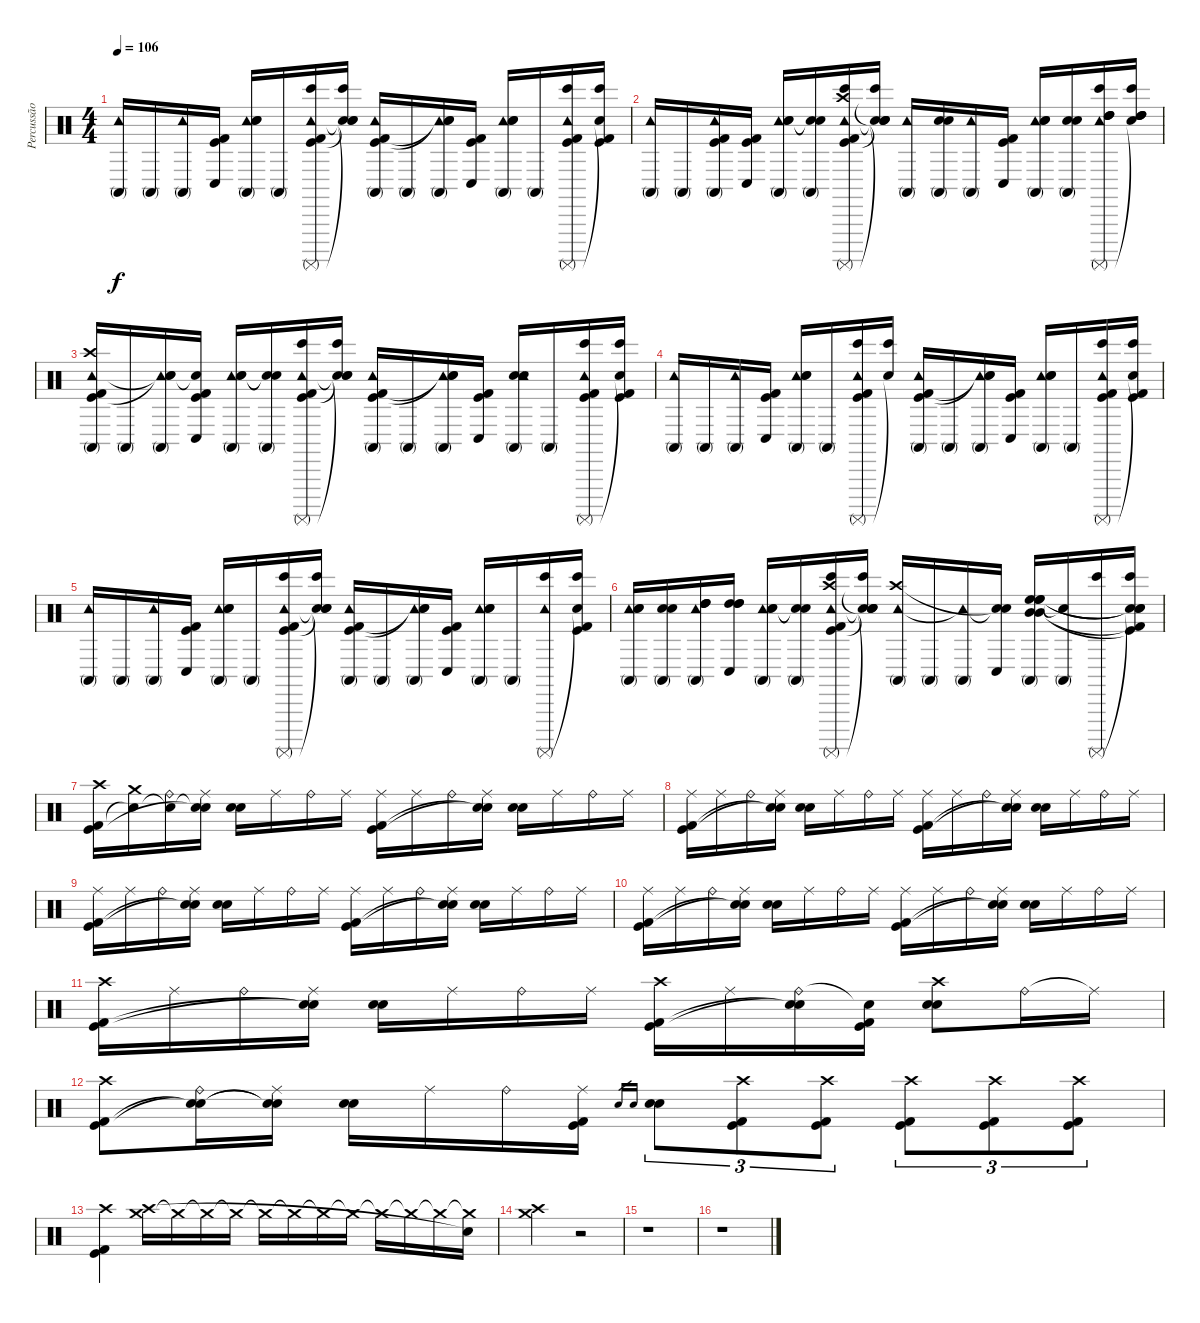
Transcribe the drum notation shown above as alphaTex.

\track ("Percussão" "Percussão") {instrument percussion}
\staff {score}
\articulation defaults
\ts (4 4)
\tempo 106
\clef neutral
\ks c
("Conga high (mute)" "Tambourine (hit)").16{dy f} "Conga high (mute)".16 ("Conga high (mute)" "Tambourine (hit)").16 ("Conga low (hit)" "Kick (hit)" "Kick (hit) 2").16 ("Conga high (mute)" "Tambourine (hit)" "Electric Snare (hit)" "Snare (hit) 2").16 "Conga high (mute)".16 ("Bongo High (hit)" "Surdo (mute)" "Tambourine (hit)" "Kick (hit)" "Kick (hit) 2").16 ("Bongo High (hit)" "Snare (hit)"{t} "Snare (hit)"{t} "Snare (hit)"{t}).16 ("Conga high (mute)" "Tambourine (hit)" "Kick (hit)" "Kick (hit) 2").16 "Conga high (mute)".16 ("Conga high (mute)" "Tambourine (hit)" "Snare (hit)"{t} "Snare (hit)"{t}).16 ("Conga low (hit)" "Kick (hit)" "Kick (hit) 2").16 ("Conga high (mute)" "Tambourine (hit)" "Electric Snare (hit)" "Snare (hit) 2").16 "Conga high (mute)".16 ("Bongo High (hit)" "Surdo (mute)" "Tambourine (hit)" "Kick (hit)" "Kick (hit) 2").16 ("Bongo High (hit)" "Snare (hit)"{t} "Kick (hit)" "Kick (hit) 2").16 |
("Conga high (mute)" "Tambourine (hit)").16 "Conga high (mute)".16 ("Conga high (mute)" "Tambourine (hit)" "Kick (hit)" "Kick (hit) 2").16 ("Conga low (hit)" "Kick (hit)" "Kick (hit) 2").16 ("Conga high (mute)" "Tambourine (hit)" "Electric Snare (hit)" "Snare (hit) 2").16 ("Conga high (mute)" "Snare (hit)"{t} "Snare (hit)"{t}).16 ("Bongo High (hit)" "Surdo (mute)" "Tambourine (hit)" "Crash high (hit)" "Kick (hit)" "Kick (hit) 2").16 ("Bongo High (hit)" "Snare (hit)"{t} "Snare (hit)"{t} "Snare (hit)"{t} "Snare (hit)"{t}).16 ("Conga high (mute)" "Tambourine (hit)").16 ("Conga high (mute)" "Electric Snare (hit)" "Snare (hit) 2").16 ("Conga high (mute)" "Tambourine (hit)").16 ("Conga low (hit)" "Kick (hit)" "Kick (hit) 2").16 ("Conga high (mute)" "Tambourine (hit)" "Electric Snare (hit)" "Snare (hit) 2").16 ("Conga high (mute)" "Electric Snare (hit)" "Snare (hit) 2").16 ("Bongo High (hit)" "Surdo (mute)" "Tambourine (hit)" "High Tom (hit)" "High Tom (hit)" "High Tom (hit)").16 ("Bongo High (hit)" "Snare (hit)"{t} "High Tom (hit)" "High Tom (hit)" "High Tom (hit)").16 |
("Conga high (mute)" "Crash high (hit)" "Tambourine (hit)" "Kick (hit)" "Kick (hit) 2").16 "Conga high (mute)".16 ("Conga high (mute)" "Tambourine (hit)" "Snare (hit)"{t} "Snare (hit)"{t}).16 ("Conga low (hit)" "Snare (hit)"{t} "Kick (hit) 2" "Kick (hit)").16 ("Conga high (mute)" "Tambourine (hit)" "Electric Snare (hit)" "Snare (hit) 2").16 ("Conga high (mute)" "Snare (hit)"{t} "Snare (hit)"{t}).16 ("Bongo High (hit)" "Surdo (mute)" "Tambourine (hit)" "Kick (hit)" "Kick (hit) 2").16 ("Bongo High (hit)" "Snare (hit)"{t} "Snare (hit)"{t} "Snare (hit)"{t}).16 ("Conga high (mute)" "Tambourine (hit)" "Kick (hit)" "Kick (hit) 2").16 "Conga high (mute)".16 ("Conga high (mute)" "Tambourine (hit)" "Snare (hit)"{t} "Snare (hit)"{t}).16 ("Conga low (hit)" "Kick (hit) 2" "Kick (hit)").16 ("Conga high (mute)" "Electric Snare (hit)" "Snare (hit) 2" "Tambourine (hit)").16 "Conga high (mute)".16 ("Bongo High (hit)" "Surdo (mute)" "Tambourine (hit)" "Kick (hit)" "Kick (hit) 2").16 ("Bongo High (hit)" "Snare (hit)"{t} "Kick (hit)" "Kick (hit) 2").16 |
("Conga high (mute)" "Tambourine (hit)").16 "Conga high (mute)".16 ("Conga high (mute)" "Tambourine (hit)").16 ("Conga low (hit)" "Kick (hit)" "Kick (hit) 2").16 ("Conga high (mute)" "Tambourine (hit)" "Electric Snare (hit)" "Snare (hit) 2").16 "Conga high (mute)".16 ("Bongo High (hit)" "Surdo (mute)" "Tambourine (hit)" "Kick (hit)" "Kick (hit) 2").16 ("Bongo High (hit)" "Snare (hit)"{t}).16 ("Conga high (mute)" "Tambourine (hit)" "Kick (hit) 2" "Kick (hit)").16 "Conga high (mute)".16 ("Conga high (mute)" "Tambourine (hit)" "Snare (hit)"{t} "Snare (hit)"{t}).16 ("Conga low (hit)" "Kick (hit)" "Kick (hit) 2").16 ("Conga high (mute)" "Tambourine (hit)" "Electric Snare (hit)" "Snare (hit) 2").16 "Conga high (mute)".16 ("Bongo High (hit)" "Surdo (mute)" "Tambourine (hit)" "Kick (hit)" "Kick (hit) 2").16 ("Bongo High (hit)" "Snare (hit)"{t} "Kick (hit)" "Kick (hit) 2").16 |
("Conga high (mute)" "Tambourine (hit)").16 "Conga high (mute)".16 ("Conga high (mute)" "Tambourine (hit)").16 ("Conga low (hit)" "Kick (hit)" "Kick (hit) 2").16 ("Conga high (mute)" "Tambourine (hit)" "Electric Snare (hit)" "Snare (hit) 2").16 "Conga high (mute)".16 ("Bongo High (hit)" "Surdo (mute)" "Tambourine (hit)" "Kick (hit)" "Kick (hit) 2").16 ("Bongo High (hit)" "Snare (hit)"{t} "Snare (hit)"{t} "Snare (hit)"{t}).16 ("Conga high (mute)" "Tambourine (hit)" "Kick (hit)" "Kick (hit) 2").16 "Conga high (mute)".16 ("Conga high (mute)" "Tambourine (hit)" "Snare (hit)"{t} "Snare (hit)"{t}).16 ("Conga low (hit)" "Kick (hit) 2" "Kick (hit)").16 ("Conga high (mute)" "Tambourine (hit)" "Electric Snare (hit)" "Snare (hit) 2").16 "Conga high (mute)".16 ("Bongo High (hit)" "Surdo (mute)" "Tambourine (hit)").16 ("Bongo High (hit)" "Snare (hit)"{t} "Kick (hit)" "Kick (hit) 2").16 |
("Conga high (mute)" "Tambourine (hit)" "Electric Snare (hit)" "Snare (hit) 2").16 ("Conga high (mute)" "Electric Snare (hit)" "Snare (hit) 2").16 ("Conga high (mute)" "Tambourine (hit)" "High Tom (hit)" "High Tom (hit)" "High Tom (hit)").16 ("Conga low (hit)" "High Tom (hit)" "High Tom (hit)" "High Tom (hit)").16 ("Conga high (mute)" "Tambourine (hit)" "Electric Snare (hit)" "Snare (hit) 2").16 ("Conga high (mute)" "Snare (hit)"{t} "Snare (hit)"{t}).16 ("Bongo High (hit)" "Surdo (mute)" "Tambourine (hit)" "Crash high (hit)" "Kick (hit)" "Kick (hit) 2").16 ("Bongo High (hit)" "Snare (hit)"{t} "Snare (hit)"{t} "Snare (hit)"{t} "Snare (hit)"{t}).16 ("Conga high (mute)" "Tambourine (hit)" "Crash high (hit)").16 "Conga high (mute)".16 ("Conga high (mute)" "Tambourine (hit)"{t}).16 ("Conga low (hit)" "Snare (hit)"{t} "Snare (hit)"{t}).16 ("Conga high (mute)" "High Floor Tom (hit)" "High Floor Tom (hit)" "High Floor Tom (hit)" "Mid Tom (hit)" "Mid Tom (hit)").16 ("Conga high (mute)" "Snare (hit)"{t}).16 ("Bongo High (hit)" "Surdo (mute)").16 ("Bongo High (hit)" "Snare (hit)"{t} "Snare (hit)"{t} "Snare (hit)"{t} "Kick (hit) 2"{t} "Kick (hit)"{t}).16 |
("Crash high (hit)" "Kick (hit) 2" "Kick (hit)").16 ("Crash medium (hit)" "Snare (hit)"{t}).16 ("Ride (bell)" "Snare (hit)"{t}).16 ("Ride (middle)" "Snare (hit)"{t} "Snare (hit)"{t}).16 ("Electric Snare (hit)" "Snare (hit) 2").16 "Ride (middle)".16 "Ride (bell)".16 "Ride (middle)".16 ("Ride (middle)" "Kick (hit)" "Kick (hit) 2").16 "Ride (middle)".16 "Ride (bell)".16 ("Ride (middle)" "Snare (hit)"{t} "Snare (hit)"{t}).16 ("Electric Snare (hit)" "Snare (hit) 2").16 "Ride (middle)".16 "Ride (bell)".16 "Ride (middle)".16 |
("Ride (middle)" "Kick (hit)" "Kick (hit) 2").16 "Ride (middle)".16 "Ride (bell)".16 ("Ride (middle)" "Snare (hit)"{t} "Snare (hit)"{t}).16 ("Electric Snare (hit)" "Snare (hit) 2").16 "Ride (middle)".16 "Ride (bell)".16 "Ride (middle)".16 ("Ride (middle)" "Kick (hit)" "Kick (hit) 2").16 "Ride (middle)".16 "Ride (bell)".16 ("Ride (middle)" "Snare (hit)"{t} "Snare (hit)"{t}).16 ("Electric Snare (hit)" "Snare (hit) 2").16 "Ride (middle)".16 "Ride (bell)".16 "Ride (middle)".16 |
("Ride (middle)" "Kick (hit)" "Kick (hit) 2").16 "Ride (middle)".16 "Ride (bell)".16 ("Ride (middle)" "Snare (hit)"{t} "Snare (hit)"{t}).16 ("Electric Snare (hit)" "Snare (hit) 2").16 "Ride (middle)".16 "Ride (bell)".16 "Ride (middle)".16 ("Ride (middle)" "Kick (hit)" "Kick (hit) 2").16 "Ride (middle)".16 "Ride (bell)".16 ("Ride (middle)" "Snare (hit)"{t} "Snare (hit)"{t}).16 ("Electric Snare (hit)" "Snare (hit) 2").16 "Ride (middle)".16 "Ride (bell)".16 "Ride (middle)".16 |
("Ride (middle)" "Kick (hit)" "Kick (hit) 2").16 "Ride (middle)".16 "Ride (bell)".16 ("Ride (middle)" "Snare (hit)"{t} "Snare (hit)"{t}).16 ("Electric Snare (hit)" "Snare (hit) 2").16 "Ride (middle)".16 "Ride (bell)".16 "Ride (middle)".16 ("Ride (middle)" "Kick (hit)" "Kick (hit) 2").16 "Ride (middle)".16 "Ride (bell)".16 ("Ride (middle)" "Snare (hit)"{t} "Snare (hit)"{t}).16 ("Electric Snare (hit)" "Snare (hit) 2").16 "Ride (middle)".16 "Ride (bell)".16 "Ride (middle)".16 |
("Crash high (hit)" "Kick (hit) 2" "Kick (hit)").16 "Ride (middle)".16 "Ride (bell)".16 ("Ride (middle)" "Snare (hit)"{t} "Snare (hit)"{t}).16 ("Electric Snare (hit)" "Snare (hit) 2").16 "Ride (middle)".16 "Ride (bell)".16 "Ride (middle)".16 ("Crash high (hit)" "Kick (hit) 2" "Kick (hit)").16 "Ride (middle)".16 ("Ride (bell)" "Snare (hit)"{t} "Snare (hit)"{t}).16 ("Snare (hit)"{t} "Kick (hit)" "Kick (hit) 2").16 ("Crash high (hit)" "Electric Snare (hit)" "Snare (hit) 2").8 "Ride (bell)".16 "Ride (middle)"{t}.16 |
("Crash high (hit)" "Kick (hit)" "Kick (hit) 2").8 ("Ride (bell)" "Snare (hit)"{t} "Snare (hit)"{t}).16 ("Ride (middle)" "Snare (hit)"{t} "Snare (hit)"{t}).16 ("Electric Snare (hit)" "Snare (hit) 2").16 "Ride (middle)".16 "Ride (bell)".16 ("Ride (middle)" "Kick (hit)" "Kick (hit) 2").16 "Electric Snare (hit)".16{gr} "Snare (hit) 2".16{gr} ("Electric Snare (hit)" "Snare (hit) 2").8{tu (3 2)} ("Crash high (hit)" "Kick (hit)" "Kick (hit) 2").8{tu (3 2)} ("Crash high (hit)" "Kick (hit)" "Kick (hit) 2").8{tu (3 2)} ("Crash high (hit)" "Kick (hit)" "Kick (hit) 2").8{tu (3 2)} ("Crash high (hit)" "Kick (hit)" "Kick (hit) 2").8{tu (3 2)} ("Crash high (hit)" "Kick (hit)" "Kick (hit) 2").8{tu (3 2)} |
("Crash high (hit)" "Kick (hit)" "Kick (hit) 2").4 ("Crash medium (hit)" "Crash high (hit)").16 "Crash medium (hit)"{t}.16 "Crash medium (hit)"{t}.16 "Crash medium (hit)"{t}.16 "Crash medium (hit)"{t}.16 "Crash medium (hit)"{t}.16 "Crash medium (hit)"{t}.16 "Crash medium (hit)"{t}.16 "Crash medium (hit)"{t}.16 "Crash medium (hit)"{t}.16 "Crash medium (hit)"{t}.16 ("Crash medium (hit)"{t} "Snare (hit)"{t}).16 |
("Crash medium (hit)" "Crash high (hit)").2 r.2 |
r.1 |
r.1
